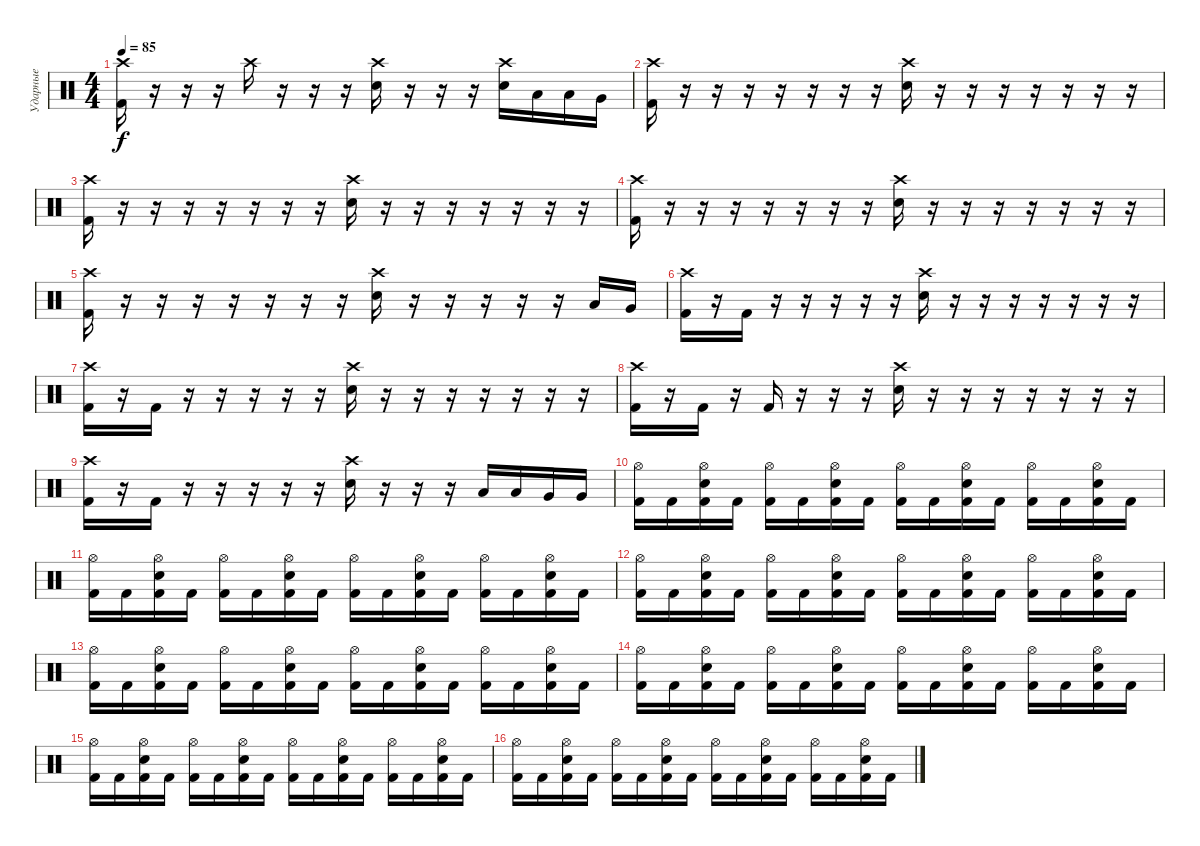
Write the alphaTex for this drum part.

\track ("Ударные" "Ударные") {instrument percussion}
\staff {score}
\articulation defaults
\ts (4 4)
\tempo 85
\clef neutral
\ks c
("Crash high (hit)" "Kick (hit) 2").16{dy f} r.16 r.16 r.16 "Crash high (hit)".16 r.16 r.16 r.16 ("Crash high (hit)" "Electric Snare (hit)").16 r.16 r.16 r.16 ("Crash high (hit)" "Electric Snare (hit)").16 "Low Tom (hit)".16 "Low Tom (hit)".16 "Very Low Tom (hit)".16 |
("Crash high (hit)" "Kick (hit) 2").16 r.16 r.16 r.16 r.16 r.16 r.16 r.16 ("Crash high (hit)" "Electric Snare (hit)").16 r.16 r.16 r.16 r.16 r.16 r.16 r.16 |
("Crash high (hit)" "Kick (hit) 2").16 r.16 r.16 r.16 r.16 r.16 r.16 r.16 ("Crash high (hit)" "Electric Snare (hit)").16 r.16 r.16 r.16 r.16 r.16 r.16 r.16 |
("Crash high (hit)" "Kick (hit) 2").16 r.16 r.16 r.16 r.16 r.16 r.16 r.16 ("Crash high (hit)" "Electric Snare (hit)").16 r.16 r.16 r.16 r.16 r.16 r.16 r.16 |
("Crash high (hit)" "Kick (hit) 2").16 r.16 r.16 r.16 r.16 r.16 r.16 r.16 ("Crash high (hit)" "Electric Snare (hit)").16 r.16 r.16 r.16 r.16 r.16 "Low Tom (hit)".16 "Very Low Tom (hit)".16 |
("Crash high (hit)" "Kick (hit) 2").16 r.16 "Kick (hit) 2".16 r.16 r.16 r.16 r.16 r.16 ("Crash high (hit)" "Electric Snare (hit)").16 r.16 r.16 r.16 r.16 r.16 r.16 r.16 |
("Crash high (hit)" "Kick (hit) 2").16 r.16 "Kick (hit) 2".16 r.16 r.16 r.16 r.16 r.16 ("Crash high (hit)" "Electric Snare (hit)").16 r.16 r.16 r.16 r.16 r.16 r.16 r.16 |
("Crash high (hit)" "Kick (hit) 2").16 r.16 "Kick (hit) 2".16 r.16 "Kick (hit) 2".16 r.16 r.16 r.16 ("Crash high (hit)" "Electric Snare (hit)").16 r.16 r.16 r.16 r.16 r.16 r.16 r.16 |
("Crash high (hit)" "Kick (hit) 2").16 r.16 "Kick (hit) 2".16 r.16 r.16 r.16 r.16 r.16 ("Crash high (hit)" "Electric Snare (hit)").16 r.16 r.16 r.16 "Low Tom (hit)".16 "Low Tom (hit)".16 "Very Low Tom (hit)".16 "Very Low Tom (hit)".16 |
("Hi-Hat (open)" "Kick (hit) 2").16 "Kick (hit) 2".16 ("Hi-Hat (open)" "Electric Snare (hit)" "Kick (hit) 2").16 "Kick (hit) 2".16 ("Hi-Hat (open)" "Kick (hit) 2").16 "Kick (hit) 2".16 ("Hi-Hat (open)" "Electric Snare (hit)" "Kick (hit) 2").16 "Kick (hit) 2".16 ("Hi-Hat (open)" "Kick (hit) 2").16 "Kick (hit) 2".16 ("Hi-Hat (open)" "Electric Snare (hit)" "Kick (hit) 2").16 "Kick (hit) 2".16 ("Hi-Hat (open)" "Kick (hit) 2").16 "Kick (hit) 2".16 ("Hi-Hat (open)" "Electric Snare (hit)" "Kick (hit) 2").16 "Kick (hit) 2".16 |
("Hi-Hat (open)" "Kick (hit) 2").16 "Kick (hit) 2".16 ("Hi-Hat (open)" "Electric Snare (hit)" "Kick (hit) 2").16 "Kick (hit) 2".16 ("Hi-Hat (open)" "Kick (hit) 2").16 "Kick (hit) 2".16 ("Hi-Hat (open)" "Electric Snare (hit)" "Kick (hit) 2").16 "Kick (hit) 2".16 ("Hi-Hat (open)" "Kick (hit) 2").16 "Kick (hit) 2".16 ("Hi-Hat (open)" "Electric Snare (hit)" "Kick (hit) 2").16 "Kick (hit) 2".16 ("Hi-Hat (open)" "Kick (hit) 2").16 "Kick (hit) 2".16 ("Hi-Hat (open)" "Electric Snare (hit)" "Kick (hit) 2").16 "Kick (hit) 2".16 |
("Hi-Hat (open)" "Kick (hit) 2").16 "Kick (hit) 2".16 ("Hi-Hat (open)" "Electric Snare (hit)" "Kick (hit) 2").16 "Kick (hit) 2".16 ("Hi-Hat (open)" "Kick (hit) 2").16 "Kick (hit) 2".16 ("Hi-Hat (open)" "Electric Snare (hit)" "Kick (hit) 2").16 "Kick (hit) 2".16 ("Hi-Hat (open)" "Kick (hit) 2").16 "Kick (hit) 2".16 ("Hi-Hat (open)" "Electric Snare (hit)" "Kick (hit) 2").16 "Kick (hit) 2".16 ("Hi-Hat (open)" "Kick (hit) 2").16 "Kick (hit) 2".16 ("Hi-Hat (open)" "Electric Snare (hit)" "Kick (hit) 2").16 "Kick (hit) 2".16 |
("Hi-Hat (open)" "Kick (hit) 2").16 "Kick (hit) 2".16 ("Hi-Hat (open)" "Electric Snare (hit)" "Kick (hit) 2").16 "Kick (hit) 2".16 ("Hi-Hat (open)" "Kick (hit) 2").16 "Kick (hit) 2".16 ("Hi-Hat (open)" "Electric Snare (hit)" "Kick (hit) 2").16 "Kick (hit) 2".16 ("Hi-Hat (open)" "Kick (hit) 2").16 "Kick (hit) 2".16 ("Hi-Hat (open)" "Electric Snare (hit)" "Kick (hit) 2").16 "Kick (hit) 2".16 ("Hi-Hat (open)" "Kick (hit) 2").16 "Kick (hit) 2".16 ("Hi-Hat (open)" "Electric Snare (hit)" "Kick (hit) 2").16 "Kick (hit) 2".16 |
("Hi-Hat (open)" "Kick (hit) 2").16 "Kick (hit) 2".16 ("Hi-Hat (open)" "Electric Snare (hit)" "Kick (hit) 2").16 "Kick (hit) 2".16 ("Hi-Hat (open)" "Kick (hit) 2").16 "Kick (hit) 2".16 ("Hi-Hat (open)" "Electric Snare (hit)" "Kick (hit) 2").16 "Kick (hit) 2".16 ("Hi-Hat (open)" "Kick (hit) 2").16 "Kick (hit) 2".16 ("Hi-Hat (open)" "Electric Snare (hit)" "Kick (hit) 2").16 "Kick (hit) 2".16 ("Hi-Hat (open)" "Kick (hit) 2").16 "Kick (hit) 2".16 ("Hi-Hat (open)" "Electric Snare (hit)" "Kick (hit) 2").16 "Kick (hit) 2".16 |
("Hi-Hat (open)" "Kick (hit) 2").16 "Kick (hit) 2".16 ("Hi-Hat (open)" "Electric Snare (hit)" "Kick (hit) 2").16 "Kick (hit) 2".16 ("Hi-Hat (open)" "Kick (hit) 2").16 "Kick (hit) 2".16 ("Hi-Hat (open)" "Electric Snare (hit)" "Kick (hit) 2").16 "Kick (hit) 2".16 ("Hi-Hat (open)" "Kick (hit) 2").16 "Kick (hit) 2".16 ("Hi-Hat (open)" "Electric Snare (hit)" "Kick (hit) 2").16 "Kick (hit) 2".16 ("Hi-Hat (open)" "Kick (hit) 2").16 "Kick (hit) 2".16 ("Hi-Hat (open)" "Electric Snare (hit)" "Kick (hit) 2").16 "Kick (hit) 2".16 |
("Hi-Hat (open)" "Kick (hit) 2").16 "Kick (hit) 2".16 ("Hi-Hat (open)" "Electric Snare (hit)" "Kick (hit) 2").16 "Kick (hit) 2".16 ("Hi-Hat (open)" "Kick (hit) 2").16 "Kick (hit) 2".16 ("Hi-Hat (open)" "Electric Snare (hit)" "Kick (hit) 2").16 "Kick (hit) 2".16 ("Hi-Hat (open)" "Kick (hit) 2").16 "Kick (hit) 2".16 ("Hi-Hat (open)" "Electric Snare (hit)" "Kick (hit) 2").16 "Kick (hit) 2".16 ("Hi-Hat (open)" "Kick (hit) 2").16 "Kick (hit) 2".16 ("Hi-Hat (open)" "Electric Snare (hit)" "Kick (hit) 2").16 "Kick (hit) 2".16
